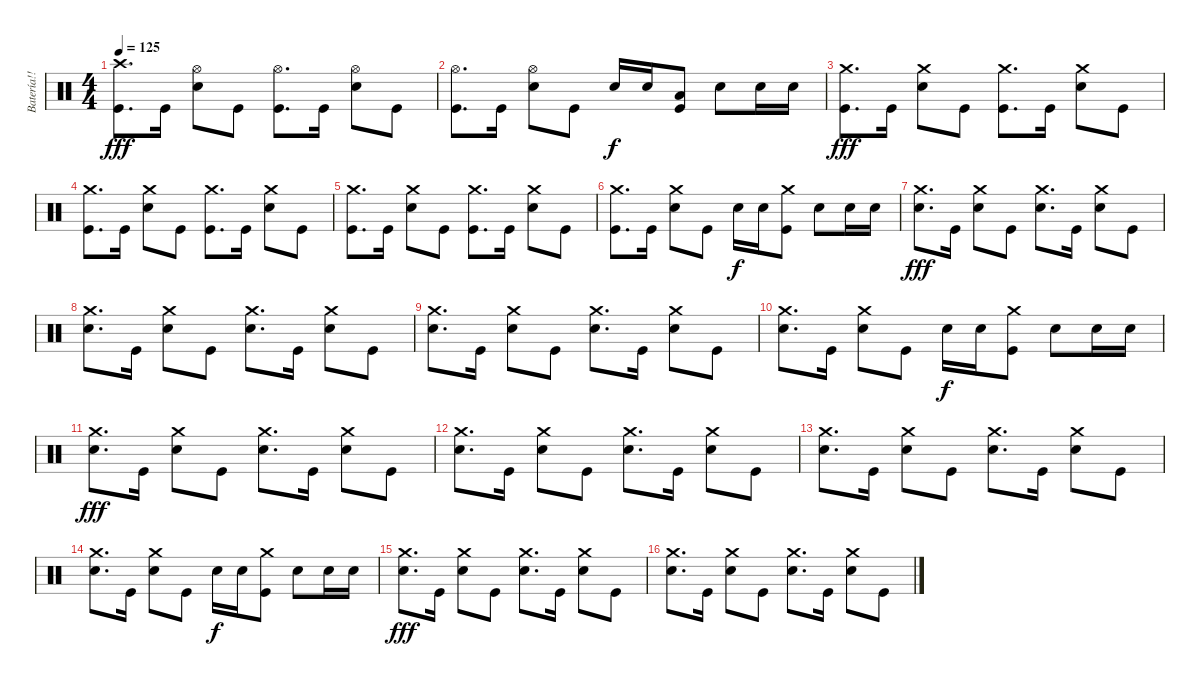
\track ("Batería!! >_<" "Batería!! ") {instrument percussion}
\staff {score}
\articulation defaults
\ts (4 4)
\tempo 125
\clef neutral
\ks c
("Crash high (hit)" "Kick (hit)").8{d dy fff} "Kick (hit)".16 ("Hi-Hat (open)" "Snare (hit) 2").8 "Kick (hit)".8 ("Hi-Hat (open)" "Kick (hit)").8{d} "Kick (hit)".16 ("Hi-Hat (open)" "Snare (hit) 2").8 "Kick (hit)".8 |
("Hi-Hat (open)" "Kick (hit)").8{d} "Kick (hit)".16 ("Hi-Hat (open)" "Snare (hit) 2").8 "Kick (hit)".8 "Snare (hit) 2".16{dy f} "Snare (hit) 2".16 ("Low Tom (hit)" "Kick (hit)").8 "Snare (hit) 2".8 "Snare (hit) 2".16 "Snare (hit) 2".16 |
("Crash medium (hit)" "Kick (hit)").8{d dy fff} "Kick (hit)".16 ("Crash medium (hit)" "Snare (hit) 2").8 "Kick (hit)".8 ("Crash medium (hit)" "Kick (hit)").8{d} "Kick (hit)".16 ("Crash medium (hit)" "Snare (hit) 2").8 "Kick (hit)".8 |
("Crash medium (hit)" "Kick (hit)").8{d} "Kick (hit)".16 ("Crash medium (hit)" "Snare (hit) 2").8 "Kick (hit)".8 ("Crash medium (hit)" "Kick (hit)").8{d} "Kick (hit)".16 ("Crash medium (hit)" "Snare (hit) 2").8 "Kick (hit)".8 |
("Crash medium (hit)" "Kick (hit)").8{d} "Kick (hit)".16 ("Crash medium (hit)" "Snare (hit) 2").8 "Kick (hit)".8 ("Crash medium (hit)" "Kick (hit)").8{d} "Kick (hit)".16 ("Crash medium (hit)" "Snare (hit) 2").8 "Kick (hit)".8 |
("Crash medium (hit)" "Kick (hit)").8{d} "Kick (hit)".16 ("Crash medium (hit)" "Snare (hit) 2").8 "Kick (hit)".8 "Snare (hit) 2".16{dy f} "Snare (hit) 2".16 ("Crash medium (hit)" "Kick (hit)").8 "Snare (hit) 2".8 "Snare (hit) 2".16 "Snare (hit) 2".16 |
("Crash medium (hit)" "Snare (hit) 2").8{d dy fff} "Kick (hit)".16 ("Crash medium (hit)" "Snare (hit) 2").8 "Kick (hit)".8 ("Crash medium (hit)" "Snare (hit) 2").8{d} "Kick (hit)".16 ("Crash medium (hit)" "Snare (hit) 2").8 "Kick (hit)".8 |
("Crash medium (hit)" "Snare (hit) 2").8{d} "Kick (hit)".16 ("Crash medium (hit)" "Snare (hit) 2").8 "Kick (hit)".8 ("Crash medium (hit)" "Snare (hit) 2").8{d} "Kick (hit)".16 ("Crash medium (hit)" "Snare (hit) 2").8 "Kick (hit)".8 |
("Crash medium (hit)" "Snare (hit) 2").8{d} "Kick (hit)".16 ("Crash medium (hit)" "Snare (hit) 2").8 "Kick (hit)".8 ("Crash medium (hit)" "Snare (hit) 2").8{d} "Kick (hit)".16 ("Crash medium (hit)" "Snare (hit) 2").8 "Kick (hit)".8 |
("Crash medium (hit)" "Snare (hit) 2").8{d} "Kick (hit)".16 ("Crash medium (hit)" "Snare (hit) 2").8 "Kick (hit)".8 "Snare (hit) 2".16{dy f} "Snare (hit) 2".16 ("Crash medium (hit)" "Kick (hit)").8 "Snare (hit) 2".8 "Snare (hit) 2".16 "Snare (hit) 2".16 |
("Crash medium (hit)" "Snare (hit) 2").8{d dy fff volume 7} "Kick (hit)".16 ("Crash medium (hit)" "Snare (hit) 2").8 "Kick (hit)".8 ("Crash medium (hit)" "Snare (hit) 2").8{d} "Kick (hit)".16 ("Crash medium (hit)" "Snare (hit) 2").8 "Kick (hit)".8 |
("Crash medium (hit)" "Snare (hit) 2").8{d} "Kick (hit)".16 ("Crash medium (hit)" "Snare (hit) 2").8 "Kick (hit)".8 ("Crash medium (hit)" "Snare (hit) 2").8{d} "Kick (hit)".16 ("Crash medium (hit)" "Snare (hit) 2").8 "Kick (hit)".8 |
("Crash medium (hit)" "Snare (hit) 2").8{d} "Kick (hit)".16 ("Crash medium (hit)" "Snare (hit) 2").8 "Kick (hit)".8 ("Crash medium (hit)" "Snare (hit) 2").8{d} "Kick (hit)".16 ("Crash medium (hit)" "Snare (hit) 2").8 "Kick (hit)".8 |
("Crash medium (hit)" "Snare (hit) 2").8{d} "Kick (hit)".16 ("Crash medium (hit)" "Snare (hit) 2").8 "Kick (hit)".8 "Snare (hit) 2".16{dy f} "Snare (hit) 2".16 ("Crash medium (hit)" "Kick (hit)").8 "Snare (hit) 2".8 "Snare (hit) 2".16 "Snare (hit) 2".16 |
("Crash medium (hit)" "Snare (hit) 2").8{d dy fff} "Kick (hit)".16 ("Crash medium (hit)" "Snare (hit) 2").8 "Kick (hit)".8 ("Crash medium (hit)" "Snare (hit) 2").8{d} "Kick (hit)".16 ("Crash medium (hit)" "Snare (hit) 2").8 "Kick (hit)".8 |
("Crash medium (hit)" "Snare (hit) 2").8{d volume 0} "Kick (hit)".16 ("Crash medium (hit)" "Snare (hit) 2").8 "Kick (hit)".8 ("Crash medium (hit)" "Snare (hit) 2").8{d} "Kick (hit)".16 ("Crash medium (hit)" "Snare (hit) 2").8 "Kick (hit)".8
